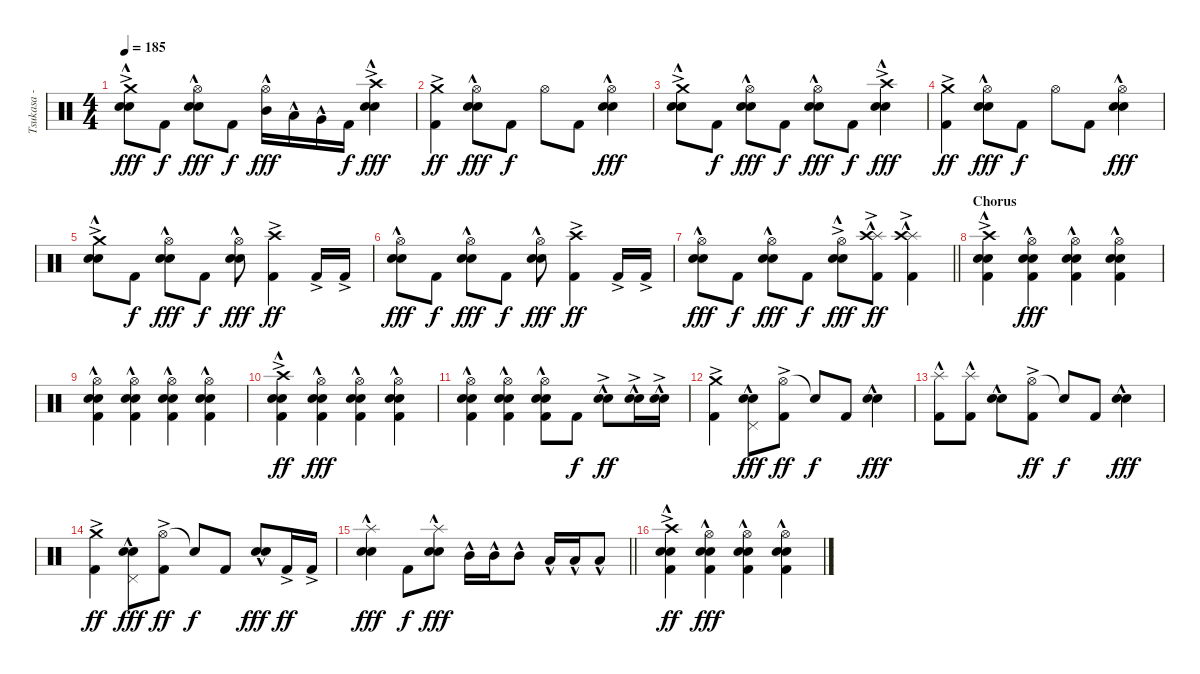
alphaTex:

\track ("Tsukasa - Drums" "Tsukasa - ") {instrument percussion}
\staff {score}
\articulation defaults
\ts (4 4)
\tempo 185
\clef neutral
\ks c
("Crash medium (hit)"{ac} "Electric Snare (hit)"{hac} "Snare (hit) 2"{hac}).8{dy fff} "Kick (hit) 2".8{dy f} ("Hi-Hat (open)" "Electric Snare (hit)"{hac} "Snare (hit) 2"{hac}).8{dy fff} "Kick (hit) 2".8{dy f} ("Hi-Hat (open)" "Mid Tom (hit)"{hac}).16{dy fff} "Low Tom (hit)"{hac}.16 "Very Low Tom (hit)"{hac}.16 "Kick (hit) 2".16{dy f} ("Crash high (hit)"{ac} "Electric Snare (hit)"{hac} "Snare (hit) 2"{hac}).4{dy fff} |
("Crash medium (hit)"{ac} "Kick (hit) 2").4{dy ff} ("Hi-Hat (open)" "Electric Snare (hit)"{hac} "Snare (hit) 2"{hac}).8{dy fff} "Kick (hit) 2".8{dy f} "Hi-Hat (open)".8 "Kick (hit) 2".8 ("Hi-Hat (open)" "Electric Snare (hit)"{hac} "Snare (hit) 2"{hac}).4{dy fff} |
("Crash medium (hit)"{ac} "Electric Snare (hit)"{hac} "Snare (hit) 2"{hac}).8 "Kick (hit) 2".8{dy f} ("Hi-Hat (open)" "Electric Snare (hit)"{hac} "Snare (hit) 2"{hac}).8{dy fff} "Kick (hit) 2".8{dy f} ("Hi-Hat (open)" "Electric Snare (hit)"{hac} "Snare (hit) 2"{hac}).8{dy fff} "Kick (hit) 2".8{dy f} ("Crash high (hit)"{ac} "Electric Snare (hit)"{hac} "Snare (hit) 2"{hac}).4{dy fff} |
("Crash medium (hit)"{ac} "Kick (hit) 2").4{dy ff} ("Hi-Hat (open)" "Electric Snare (hit)"{hac} "Snare (hit) 2"{hac}).8{dy fff} "Kick (hit) 2".8{dy f} "Hi-Hat (open)".8 "Kick (hit) 2".8 ("Hi-Hat (open)" "Electric Snare (hit)"{hac} "Snare (hit) 2"{hac}).4{dy fff} |
("Crash medium (hit)"{ac} "Electric Snare (hit)"{hac} "Snare (hit) 2"{hac}).8 "Kick (hit) 2".8{dy f} ("Hi-Hat (open)" "Electric Snare (hit)"{hac} "Snare (hit) 2"{hac}).8{dy fff} "Kick (hit) 2".8{dy f} ("Hi-Hat (open)" "Electric Snare (hit)"{hac} "Snare (hit) 2"{hac}).8{dy fff} ("Crash high (hit)"{ac} "Kick (hit) 2").4{dy ff} "Kick (hit) 2"{ac}.16 "Kick (hit) 2"{ac}.16 |
("Hi-Hat (open)" "Electric Snare (hit)"{hac} "Snare (hit) 2"{hac}).8{dy fff} "Kick (hit) 2".8{dy f} ("Hi-Hat (open)" "Electric Snare (hit)"{hac} "Snare (hit) 2"{hac}).8{dy fff} "Kick (hit) 2".8{dy f} ("Hi-Hat (open)" "Electric Snare (hit)"{hac} "Snare (hit) 2"{hac}).8{dy fff} ("Crash high (hit)"{ac} "Kick (hit) 2").4{dy ff} "Kick (hit) 2"{ac}.16 "Kick (hit) 2"{ac}.16 |
\barLineRight lightlight
("Hi-Hat (open)" "Electric Snare (hit)"{hac} "Snare (hit) 2"{hac}).8{dy fff} "Kick (hit) 2".8{dy f} ("Hi-Hat (open)" "Electric Snare (hit)"{hac} "Snare (hit) 2"{hac}).8{dy fff} "Kick (hit) 2".8{dy f} ("Hi-Hat (open)"{ac} "Electric Snare (hit)"{hac} "Snare (hit) 2"{hac}).8{dy fff} ("Splash (hit)"{hac} "Crash high (hit)"{ac} "Kick (hit) 2"{ac}).8{dy ff} ("Splash (hit)"{hac} "Crash high (hit)"{ac} "Kick (hit) 2"{ac}).4 |
\section ("" "Chorus")
("Crash high (hit)"{ac} "Electric Snare (hit)"{hac} "Snare (hit) 2"{ac} "Kick (hit) 2").4 ("Hi-Hat (open)" "Electric Snare (hit)"{hac} "Snare (hit) 2" "Kick (hit) 2").4{dy fff} ("Hi-Hat (open)" "Electric Snare (hit)"{hac} "Snare (hit) 2" "Kick (hit) 2").4 ("Hi-Hat (open)" "Electric Snare (hit)"{hac} "Snare (hit) 2" "Kick (hit) 2").4 |
("Hi-Hat (open)" "Electric Snare (hit)"{hac} "Snare (hit) 2" "Kick (hit) 2").4 ("Hi-Hat (open)" "Electric Snare (hit)"{hac} "Snare (hit) 2" "Kick (hit) 2").4 ("Hi-Hat (open)" "Electric Snare (hit)"{hac} "Snare (hit) 2" "Kick (hit) 2").4 ("Hi-Hat (open)" "Electric Snare (hit)"{hac} "Snare (hit) 2" "Kick (hit) 2").4 |
("Crash high (hit)"{ac} "Electric Snare (hit)"{hac} "Snare (hit) 2"{ac} "Kick (hit) 2").4{dy ff} ("Hi-Hat (open)" "Electric Snare (hit)"{hac} "Snare (hit) 2" "Kick (hit) 2").4{dy fff} ("Hi-Hat (open)" "Electric Snare (hit)"{hac} "Snare (hit) 2" "Kick (hit) 2").4 ("Hi-Hat (open)" "Electric Snare (hit)"{hac} "Snare (hit) 2" "Kick (hit) 2").4 |
("Hi-Hat (open)" "Electric Snare (hit)"{hac} "Snare (hit) 2" "Kick (hit) 2").4 ("Hi-Hat (open)" "Electric Snare (hit)"{hac} "Snare (hit) 2" "Kick (hit) 2").4 ("Hi-Hat (open)" "Electric Snare (hit)"{hac} "Snare (hit) 2" "Kick (hit) 2").8 "Kick (hit) 2".8{dy f} ("Electric Snare (hit)"{hac} "Snare (hit) 2"{ac}).8{dy ff} ("Electric Snare (hit)"{hac} "Snare (hit) 2"{ac}).16 ("Electric Snare (hit)"{hac} "Snare (hit) 2"{ac}).16 |
("Crash medium (hit)"{ac} "Kick (hit) 2").4 ("Pedal Hi-Hat (hit)" "Electric Snare (hit)"{hac} "Snare (hit) 2"{hac}).8{dy fff} ("Hi-Hat (open)"{ac} "Kick (hit) 2").8{dy ff} "Snare (hit)"{t}.8{dy f} "Kick (hit) 2".8 ("Electric Snare (hit)"{hac} "Snare (hit) 2"{hac}).4{dy fff} |
("Splash (hit)"{hac} "Kick (hit) 2").8 ("Splash (hit)"{hac} "Kick (hit) 2").8 ("Electric Snare (hit)"{hac} "Snare (hit) 2"{hac}).8 ("Hi-Hat (open)"{ac} "Kick (hit) 2").8{dy ff} "Snare (hit)"{t}.8{dy f} "Kick (hit) 2".8 ("Electric Snare (hit)"{hac} "Snare (hit) 2"{hac}).4{dy fff} |
("Crash medium (hit)"{ac} "Kick (hit) 2").4{dy ff} ("Pedal Hi-Hat (hit)" "Electric Snare (hit)"{hac} "Snare (hit) 2"{hac}).8{dy fff} ("Hi-Hat (open)"{ac} "Kick (hit) 2").8{dy ff} "Snare (hit)"{t}.8{dy f} "Kick (hit) 2".8 ("Electric Snare (hit)"{hac} "Snare (hit) 2"{hac}).8{dy fff} "Kick (hit) 2"{ac}.16{dy ff} "Kick (hit) 2"{ac}.16 |
\barLineRight lightlight
("Splash (hit)"{hac} "Electric Snare (hit)"{hac} "Snare (hit) 2"{hac}).4{dy fff} "Kick (hit) 2".8{dy f} ("Splash (hit)"{hac} "Electric Snare (hit)"{hac} "Snare (hit) 2"{hac}).8{dy fff} "Mid Tom (hit)"{hac}.16 "Mid Tom (hit)"{hac}.16 "Mid Tom (hit)"{hac}.8 "Low Tom (hit)"{hac}.16 "Low Tom (hit)"{hac}.16 "Low Tom (hit)"{hac}.8 |
\section ("" "")
("Crash high (hit)"{ac} "Electric Snare (hit)"{hac} "Snare (hit) 2"{ac} "Kick (hit) 2").4{dy ff} ("Hi-Hat (open)" "Electric Snare (hit)"{hac} "Snare (hit) 2" "Kick (hit) 2").4{dy fff} ("Hi-Hat (open)" "Electric Snare (hit)"{hac} "Snare (hit) 2" "Kick (hit) 2").4 ("Hi-Hat (open)" "Electric Snare (hit)"{hac} "Snare (hit) 2" "Kick (hit) 2").4
